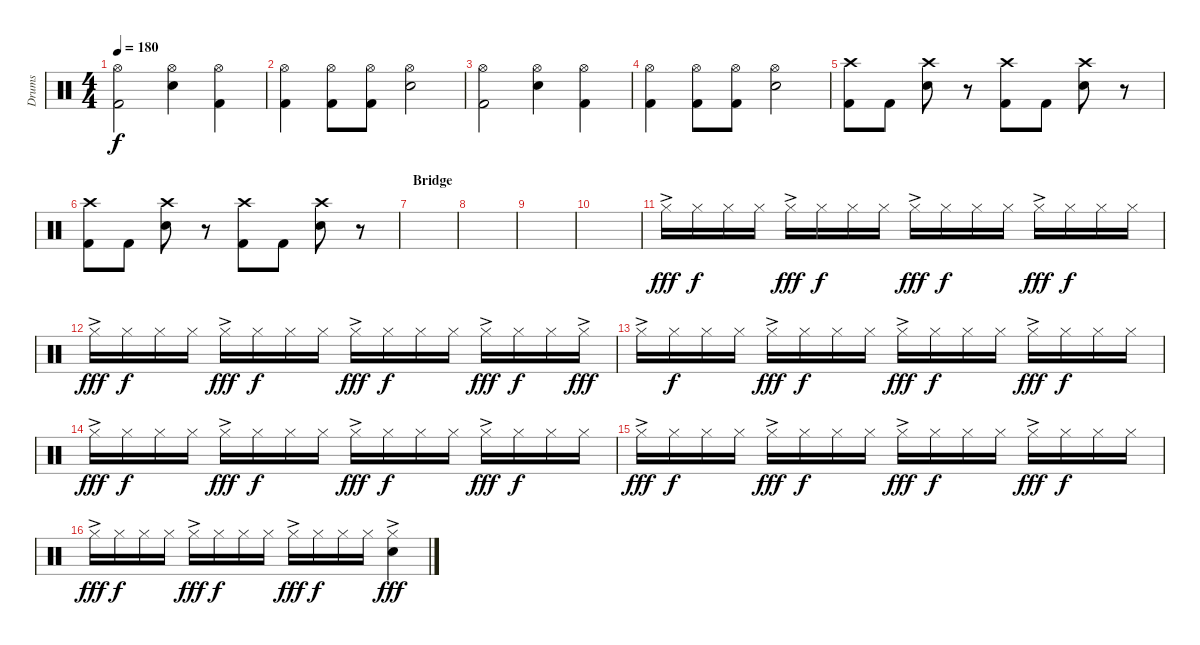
\track ("Drums" "Drums") {instrument percussion}
\staff {score}
\articulation defaults
\ts (4 4)
\tempo 180
\clef neutral
\ks c
("Hi-Hat (open)" "Kick (hit) 2").2{dy f} ("Hi-Hat (open)" "Snare (hit) 2").4 ("Hi-Hat (open)" "Kick (hit) 2").4 |
("Hi-Hat (open)" "Kick (hit) 2").4 ("Hi-Hat (open)" "Kick (hit) 2").8 ("Hi-Hat (open)" "Kick (hit) 2").8 ("Hi-Hat (open)" "Snare (hit) 2").2 |
("Hi-Hat (open)" "Kick (hit) 2").2 ("Hi-Hat (open)" "Snare (hit) 2").4 ("Hi-Hat (open)" "Kick (hit) 2").4 |
("Hi-Hat (open)" "Kick (hit) 2").4 ("Hi-Hat (open)" "Kick (hit) 2").8 ("Hi-Hat (open)" "Kick (hit) 2").8 ("Hi-Hat (open)" "Snare (hit) 2").2 |
("Crash high (hit)" "Kick (hit) 2").8 "Kick (hit) 2".8 ("Crash high (hit)" "Snare (hit) 2").8 r.8 ("Crash high (hit)" "Kick (hit) 2").8 "Kick (hit) 2".8 ("Crash high (hit)" "Snare (hit) 2").8 r.8 |
("Crash high (hit)" "Kick (hit) 2").8 "Kick (hit) 2".8 ("Crash high (hit)" "Snare (hit) 2").8 r.8 ("Crash high (hit)" "Kick (hit) 2").8 "Kick (hit) 2".8 ("Crash high (hit)" "Snare (hit) 2").8 r.8 |
\section ("" "Bridge")
|
|
|
|
"Hi-Hat (closed)"{ac}.16{dy fff} "Hi-Hat (closed)".16{dy f} "Hi-Hat (closed)".16 "Hi-Hat (closed)".16 "Hi-Hat (closed)"{ac}.16{dy fff} "Hi-Hat (closed)".16{dy f} "Hi-Hat (closed)".16 "Hi-Hat (closed)".16 "Hi-Hat (closed)"{ac}.16{dy fff} "Hi-Hat (closed)".16{dy f} "Hi-Hat (closed)".16 "Hi-Hat (closed)".16 "Hi-Hat (closed)"{ac}.16{dy fff} "Hi-Hat (closed)".16{dy f} "Hi-Hat (closed)".16 "Hi-Hat (closed)".16 |
"Hi-Hat (closed)"{ac}.16{dy fff} "Hi-Hat (closed)".16{dy f} "Hi-Hat (closed)".16 "Hi-Hat (closed)".16 "Hi-Hat (closed)"{ac}.16{dy fff} "Hi-Hat (closed)".16{dy f} "Hi-Hat (closed)".16 "Hi-Hat (closed)".16 "Hi-Hat (closed)"{ac}.16{dy fff} "Hi-Hat (closed)".16{dy f} "Hi-Hat (closed)".16 "Hi-Hat (closed)".16 "Hi-Hat (closed)"{ac}.16{dy fff} "Hi-Hat (closed)".16{dy f} "Hi-Hat (closed)".16 "Hi-Hat (closed)"{ac}.16{dy fff} |
"Hi-Hat (closed)"{ac}.16 "Hi-Hat (closed)".16{dy f} "Hi-Hat (closed)".16 "Hi-Hat (closed)".16 "Hi-Hat (closed)"{ac}.16{dy fff} "Hi-Hat (closed)".16{dy f} "Hi-Hat (closed)".16 "Hi-Hat (closed)".16 "Hi-Hat (closed)"{ac}.16{dy fff} "Hi-Hat (closed)".16{dy f} "Hi-Hat (closed)".16 "Hi-Hat (closed)".16 "Hi-Hat (closed)"{ac}.16{dy fff} "Hi-Hat (closed)".16{dy f} "Hi-Hat (closed)".16 "Hi-Hat (closed)".16 |
"Hi-Hat (closed)"{ac}.16{dy fff} "Hi-Hat (closed)".16{dy f} "Hi-Hat (closed)".16 "Hi-Hat (closed)".16 "Hi-Hat (closed)"{ac}.16{dy fff} "Hi-Hat (closed)".16{dy f} "Hi-Hat (closed)".16 "Hi-Hat (closed)".16 "Hi-Hat (closed)"{ac}.16{dy fff} "Hi-Hat (closed)".16{dy f} "Hi-Hat (closed)".16 "Hi-Hat (closed)".16 "Hi-Hat (closed)"{ac}.16{dy fff} "Hi-Hat (closed)".16{dy f} "Hi-Hat (closed)".16 "Hi-Hat (closed)".16 |
"Hi-Hat (closed)"{ac}.16{dy fff} "Hi-Hat (closed)".16{dy f} "Hi-Hat (closed)".16 "Hi-Hat (closed)".16 "Hi-Hat (closed)"{ac}.16{dy fff} "Hi-Hat (closed)".16{dy f} "Hi-Hat (closed)".16 "Hi-Hat (closed)".16 "Hi-Hat (closed)"{ac}.16{dy fff} "Hi-Hat (closed)".16{dy f} "Hi-Hat (closed)".16 "Hi-Hat (closed)".16 "Hi-Hat (closed)"{ac}.16{dy fff} "Hi-Hat (closed)".16{dy f} "Hi-Hat (closed)".16 "Hi-Hat (closed)".16 |
"Hi-Hat (closed)"{ac}.16{dy fff} "Hi-Hat (closed)".16{dy f} "Hi-Hat (closed)".16 "Hi-Hat (closed)".16 "Hi-Hat (closed)"{ac}.16{dy fff} "Hi-Hat (closed)".16{dy f} "Hi-Hat (closed)".16 "Hi-Hat (closed)".16 "Hi-Hat (closed)"{ac}.16{dy fff} "Hi-Hat (closed)".16{dy f} "Hi-Hat (closed)".16 "Hi-Hat (closed)".16 ("Hi-Hat (closed)"{ac} "Snare (hit) 2").4{dy fff}
